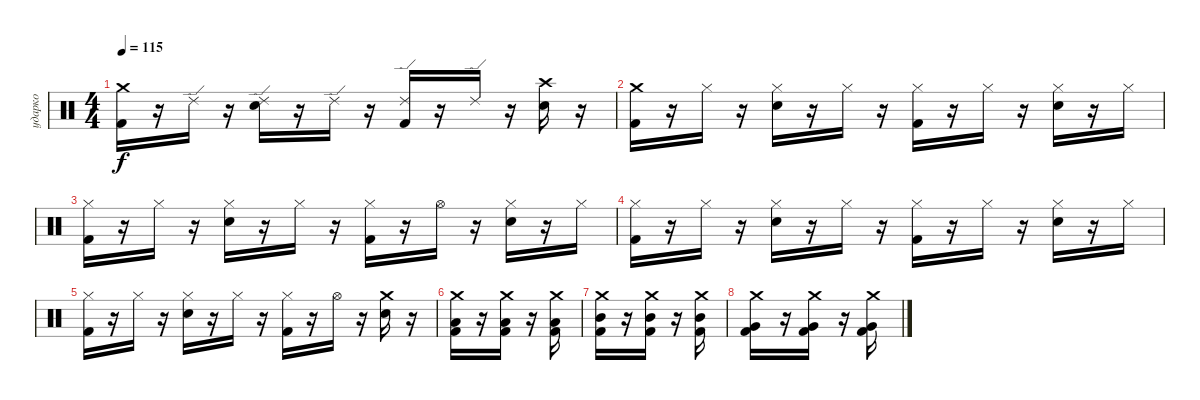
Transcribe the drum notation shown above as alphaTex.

\track ("ударко" "ударко") {instrument percussion}
\staff
\articulation defaults
\ts (4 4)
\tempo 115
\clef neutral
\ks c
("Crash medium (hit)" "Kick (hit) 2").16{dy f} r.16 "Ride (edge) 2".16 r.16 ("Ride (edge) 2" "Electric Snare (hit)").16 r.16 "Ride (edge) 2".16 r.16 ("Ride (edge) 2" "Kick (hit) 2").16 r.16 "Ride (edge) 2".16 r.16 ("Crash high (hit)" "Electric Snare (hit)").16 r.16 |
("Crash medium (hit)" "Kick (hit) 2").16 r.16 "Hi-Hat (closed)".16 r.16 ("Hi-Hat (closed)" "Electric Snare (hit)").16 r.16 "Hi-Hat (closed)".16 r.16 ("Hi-Hat (closed)" "Kick (hit) 2").16 r.16 "Hi-Hat (closed)".16 r.16 ("Hi-Hat (closed)" "Electric Snare (hit)").16 r.16 "Hi-Hat (closed)".16 |
("Hi-Hat (closed)" "Kick (hit) 2").16 r.16 "Hi-Hat (closed)".16 r.16 ("Hi-Hat (closed)" "Electric Snare (hit)").16 r.16 "Hi-Hat (closed)".16 r.16 ("Hi-Hat (closed)" "Kick (hit) 2").16 r.16 "Hi-Hat (open)".16 r.16 ("Hi-Hat (closed)" "Electric Snare (hit)").16 r.16 "Hi-Hat (closed)".16 |
("Hi-Hat (closed)" "Kick (hit) 2").16 r.16 "Hi-Hat (closed)".16 r.16 ("Hi-Hat (closed)" "Electric Snare (hit)").16 r.16 "Hi-Hat (closed)".16 r.16 ("Hi-Hat (closed)" "Kick (hit) 2").16 r.16 "Hi-Hat (closed)".16 r.16 ("Hi-Hat (closed)" "Electric Snare (hit)").16 r.16 "Hi-Hat (closed)".16 |
("Hi-Hat (closed)" "Kick (hit) 2").16 r.16 "Hi-Hat (closed)".16 r.16 ("Hi-Hat (closed)" "Electric Snare (hit)").16 r.16 "Hi-Hat (closed)".16 r.16 ("Hi-Hat (closed)" "Kick (hit) 2").16 r.16 "Hi-Hat (open)".16 r.16 ("Crash medium (hit)" "Electric Snare (hit)").16 r.16 |
("Crash medium (hit)" "Low Tom (hit)" "Kick (hit) 2").16 r.16 ("Crash medium (hit)" "Low Tom (hit)" "Kick (hit) 2").16 r.16 ("Crash medium (hit)" "Low Tom (hit)" "Kick (hit) 2").16 |
("Crash medium (hit)" "Mid Tom (hit)" "Kick (hit) 2").16 r.16 ("Crash medium (hit)" "Mid Tom (hit)" "Kick (hit) 2").16 r.16 ("Crash medium (hit)" "Mid Tom (hit)" "Kick (hit) 2").16 |
("Crash medium (hit)" "Very Low Tom (hit)" "Kick (hit) 2").16 r.16 ("Crash medium (hit)" "Very Low Tom (hit)" "Kick (hit) 2").16 r.16 ("Crash medium (hit)" "Very Low Tom (hit)" "Kick (hit) 2").16
